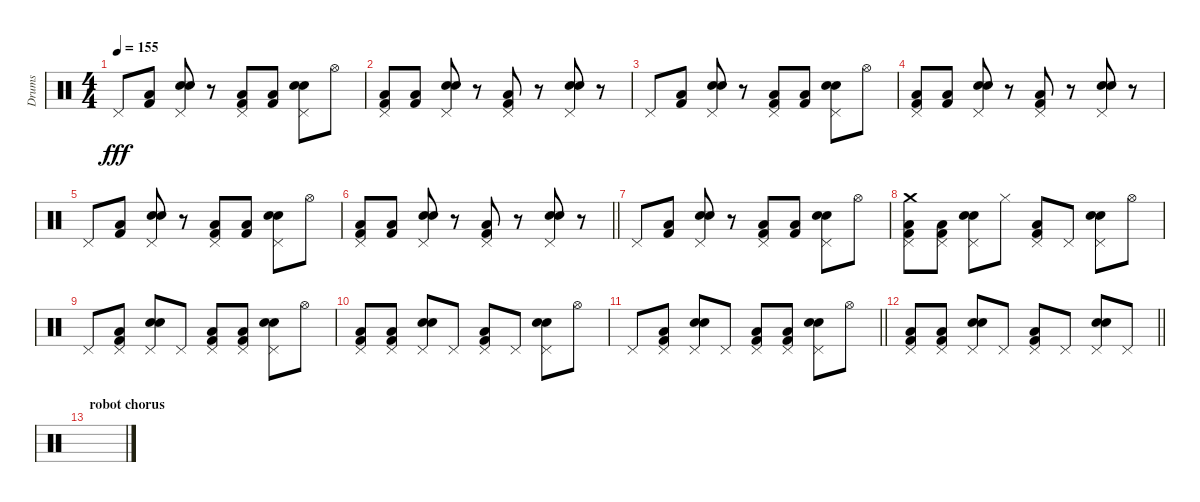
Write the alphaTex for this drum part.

\track ("Drums" "Drums") {instrument percussion}
\staff {score}
\articulation defaults
\ts (4 4)
\tempo 155
\clef neutral
\ks c "Pedal Hi-Hat (hit)".8{dy fff}
("Low Tom (hit)" "Kick (hit) 2").8 ("Pedal Hi-Hat (hit)" "Electric Snare (hit)" "Snare (hit) 2").8 r.8 ("Pedal Hi-Hat (hit)" "Low Tom (hit)" "Kick (hit) 2").8 ("Low Tom (hit)" "Kick (hit) 2").8 ("Pedal Hi-Hat (hit)" "Electric Snare (hit)" "Snare (hit) 2").8 "Hi-Hat (open)".8 |
("Pedal Hi-Hat (hit)" "Low Tom (hit)" "Kick (hit) 2").8 ("Low Tom (hit)" "Kick (hit) 2").8 ("Pedal Hi-Hat (hit)" "Electric Snare (hit)" "Snare (hit) 2").8 r.8 ("Pedal Hi-Hat (hit)" "Low Tom (hit)" "Kick (hit) 2").8 r.8 ("Pedal Hi-Hat (hit)" "Electric Snare (hit)" "Snare (hit) 2").8 r.8 |
"Pedal Hi-Hat (hit)".8 ("Low Tom (hit)" "Kick (hit) 2").8 ("Pedal Hi-Hat (hit)" "Electric Snare (hit)" "Snare (hit) 2").8 r.8 ("Pedal Hi-Hat (hit)" "Low Tom (hit)" "Kick (hit) 2").8 ("Low Tom (hit)" "Kick (hit) 2").8 ("Pedal Hi-Hat (hit)" "Electric Snare (hit)" "Snare (hit) 2").8 "Hi-Hat (open)".8 |
("Pedal Hi-Hat (hit)" "Low Tom (hit)" "Kick (hit) 2").8 ("Low Tom (hit)" "Kick (hit) 2").8 ("Pedal Hi-Hat (hit)" "Electric Snare (hit)" "Snare (hit) 2").8 r.8 ("Pedal Hi-Hat (hit)" "Low Tom (hit)" "Kick (hit) 2").8 r.8 ("Pedal Hi-Hat (hit)" "Electric Snare (hit)" "Snare (hit) 2").8 r.8 |
"Pedal Hi-Hat (hit)".8 ("Low Tom (hit)" "Kick (hit) 2").8 ("Pedal Hi-Hat (hit)" "Electric Snare (hit)" "Snare (hit) 2").8 r.8 ("Pedal Hi-Hat (hit)" "Low Tom (hit)" "Kick (hit) 2").8 ("Low Tom (hit)" "Kick (hit) 2").8 ("Pedal Hi-Hat (hit)" "Electric Snare (hit)" "Snare (hit) 2").8 "Hi-Hat (open)".8 |
\barLineRight lightlight
("Pedal Hi-Hat (hit)" "Low Tom (hit)" "Kick (hit) 2").8 ("Low Tom (hit)" "Kick (hit) 2").8 ("Pedal Hi-Hat (hit)" "Electric Snare (hit)" "Snare (hit) 2").8 r.8 ("Pedal Hi-Hat (hit)" "Low Tom (hit)" "Kick (hit) 2").8 r.8 ("Pedal Hi-Hat (hit)" "Electric Snare (hit)" "Snare (hit) 2").8 r.8 |
"Pedal Hi-Hat (hit)".8 ("Low Tom (hit)" "Kick (hit) 2").8 ("Pedal Hi-Hat (hit)" "Electric Snare (hit)" "Snare (hit) 2").8 r.8 ("Pedal Hi-Hat (hit)" "Low Tom (hit)" "Kick (hit) 2").8 ("Low Tom (hit)" "Kick (hit) 2").8 ("Pedal Hi-Hat (hit)" "Electric Snare (hit)" "Snare (hit) 2").8 "Hi-Hat (open)".8 |
("Crash medium (hit)" "Pedal Hi-Hat (hit)" "Low Tom (hit)" "Kick (hit) 2").8 ("Pedal Hi-Hat (hit)" "Low Tom (hit)" "Kick (hit) 2").8 ("Pedal Hi-Hat (hit)" "Electric Snare (hit)" "Snare (hit) 2").8 "Hi-Hat (closed)".8 ("Pedal Hi-Hat (hit)" "Low Tom (hit)" "Kick (hit) 2").8 "Pedal Hi-Hat (hit)".8 ("Pedal Hi-Hat (hit)" "Electric Snare (hit)" "Snare (hit) 2").8 "Hi-Hat (open)".8 |
"Pedal Hi-Hat (hit)".8 ("Pedal Hi-Hat (hit)" "Low Tom (hit)" "Kick (hit) 2").8 ("Pedal Hi-Hat (hit)" "Electric Snare (hit)" "Snare (hit) 2").8 "Pedal Hi-Hat (hit)".8 ("Pedal Hi-Hat (hit)" "Low Tom (hit)" "Kick (hit) 2").8 ("Pedal Hi-Hat (hit)" "Low Tom (hit)" "Kick (hit) 2").8 ("Pedal Hi-Hat (hit)" "Electric Snare (hit)" "Snare (hit) 2").8 "Hi-Hat (open)".8 |
("Pedal Hi-Hat (hit)" "Low Tom (hit)" "Kick (hit) 2").8 ("Pedal Hi-Hat (hit)" "Low Tom (hit)" "Kick (hit) 2").8 ("Pedal Hi-Hat (hit)" "Electric Snare (hit)" "Snare (hit) 2").8 "Pedal Hi-Hat (hit)".8 ("Pedal Hi-Hat (hit)" "Low Tom (hit)" "Kick (hit) 2").8 "Pedal Hi-Hat (hit)".8 ("Pedal Hi-Hat (hit)" "Electric Snare (hit)" "Snare (hit) 2").8 "Hi-Hat (open)".8 |
\barLineRight lightlight "Pedal Hi-Hat (hit)".8
("Pedal Hi-Hat (hit)" "Low Tom (hit)" "Kick (hit) 2").8 ("Pedal Hi-Hat (hit)" "Electric Snare (hit)" "Snare (hit) 2").8 "Pedal Hi-Hat (hit)".8 ("Pedal Hi-Hat (hit)" "Low Tom (hit)" "Kick (hit) 2").8 ("Pedal Hi-Hat (hit)" "Low Tom (hit)" "Kick (hit) 2").8 ("Pedal Hi-Hat (hit)" "Electric Snare (hit)" "Snare (hit) 2").8 "Hi-Hat (open)".8 |
\barLineRight lightlight
("Pedal Hi-Hat (hit)" "Low Tom (hit)" "Kick (hit) 2").8 ("Pedal Hi-Hat (hit)" "Low Tom (hit)" "Kick (hit) 2").8 ("Pedal Hi-Hat (hit)" "Electric Snare (hit)" "Snare (hit) 2").8 "Pedal Hi-Hat (hit)".8 ("Pedal Hi-Hat (hit)" "Low Tom (hit)" "Kick (hit) 2").8 "Pedal Hi-Hat (hit)".8 ("Pedal Hi-Hat (hit)" "Electric Snare (hit)" "Snare (hit) 2").8 "Pedal Hi-Hat (hit)".8 |
\section ("" "robot chorus")
